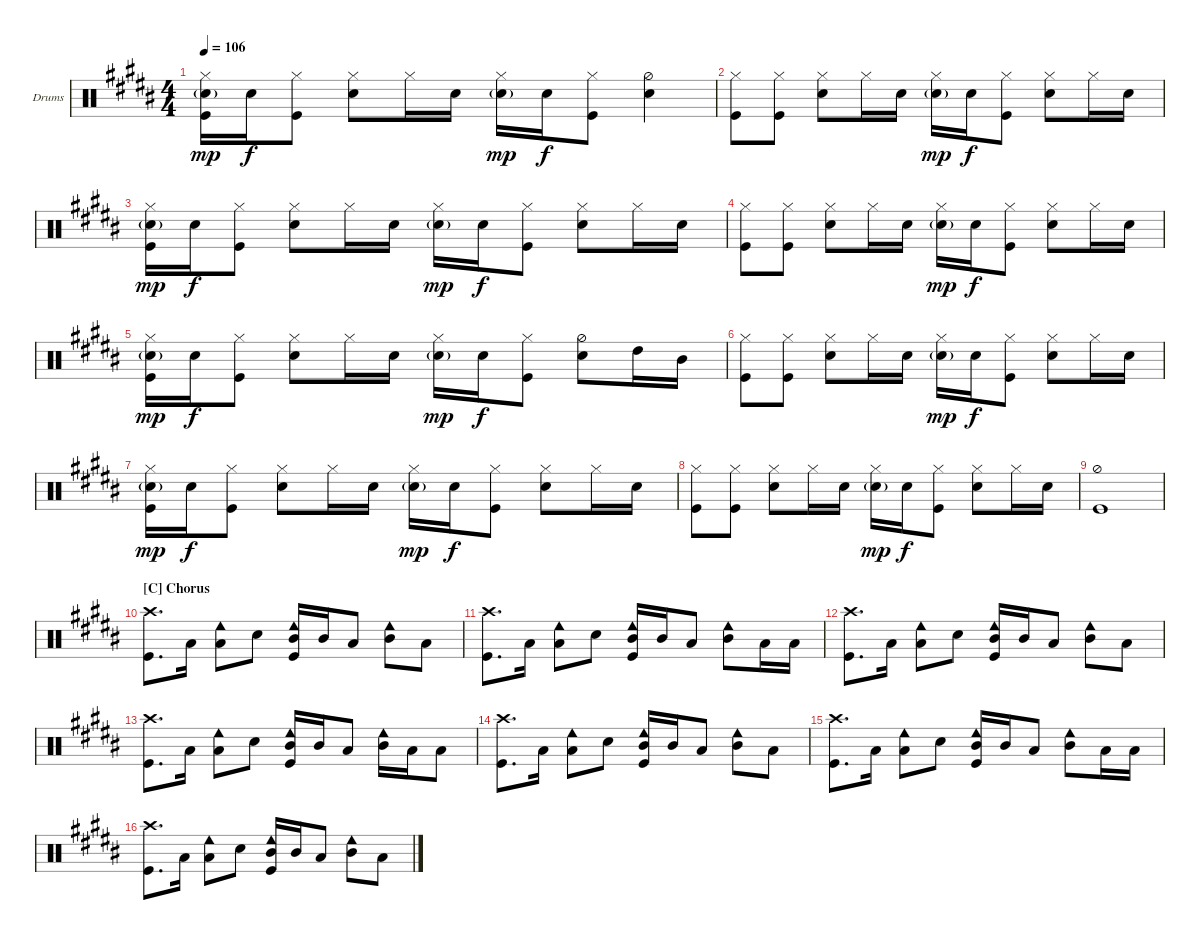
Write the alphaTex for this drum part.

\defaultSystemsLayout 4
\bracketExtendMode groupsimilarinstruments
\firstSystemTrackNameOrientation horizontal
\otherSystemsTrackNameOrientation horizontal
\track ("Dominic Boyce (Drums)" "Drums") {multiBarRest instrument percussion}
\staff {score}
\articulation defaults
\ts (4 4)
\tempo 106
\clef neutral
\ks b
("Snare (hit) 2"{g} "Hi-Hat (closed)" "Kick (hit)").16{dy mp} "Snare (hit) 2".16{dy f} ("Kick (hit)" "Hi-Hat (closed)").8 ("Snare (hit) 2" "Hi-Hat (closed)").8 "Hi-Hat (closed)".16 "Snare (hit) 2".16 ("Snare (hit) 2"{g} "Hi-Hat (closed)").16{dy mp} "Snare (hit) 2".16{dy f} ("Kick (hit)" "Hi-Hat (closed)").8 ("Snare (hit) 2" "Hi-Hat (half)").4 |
("Kick (hit)" "Hi-Hat (closed)").8 ("Kick (hit)" "Hi-Hat (closed)").8 ("Snare (hit) 2" "Hi-Hat (closed)").8 "Hi-Hat (closed)".16 "Snare (hit) 2".16 ("Snare (hit) 2"{g} "Hi-Hat (closed)").16{dy mp} "Snare (hit) 2".16{dy f} ("Kick (hit)" "Hi-Hat (closed)").8 ("Snare (hit) 2" "Hi-Hat (closed)").8 "Hi-Hat (closed)".16 "Snare (hit) 2".16 |
("Snare (hit) 2"{g} "Hi-Hat (closed)" "Kick (hit)").16{dy mp} "Snare (hit) 2".16{dy f} ("Kick (hit)" "Hi-Hat (closed)").8 ("Snare (hit) 2" "Hi-Hat (closed)").8 "Hi-Hat (closed)".16 "Snare (hit) 2".16 ("Snare (hit) 2"{g} "Hi-Hat (closed)").16{dy mp} "Snare (hit) 2".16{dy f} ("Kick (hit)" "Hi-Hat (closed)").8 ("Snare (hit) 2" "Hi-Hat (closed)").8 "Hi-Hat (closed)".16 "Snare (hit) 2".16 |
("Kick (hit)" "Hi-Hat (closed)").8 ("Kick (hit)" "Hi-Hat (closed)").8 ("Snare (hit) 2" "Hi-Hat (closed)").8 "Hi-Hat (closed)".16 "Snare (hit) 2".16 ("Snare (hit) 2"{g} "Hi-Hat (closed)").16{dy mp} "Snare (hit) 2".16{dy f} ("Kick (hit)" "Hi-Hat (closed)").8 ("Snare (hit) 2" "Hi-Hat (closed)").8 "Hi-Hat (closed)".16 "Snare (hit) 2".16 |
("Snare (hit) 2"{g} "Hi-Hat (closed)" "Kick (hit)").16{dy mp} "Snare (hit) 2".16{dy f} ("Kick (hit)" "Hi-Hat (closed)").8 ("Snare (hit) 2" "Hi-Hat (closed)").8 "Hi-Hat (closed)".16 "Snare (hit) 2".16 ("Snare (hit) 2"{g} "Hi-Hat (closed)").16{dy mp} "Snare (hit) 2".16{dy f} ("Kick (hit)" "Hi-Hat (closed)").8 ("Snare (hit) 2" "Hi-Hat (half)").8 "High Tom (hit)".16 "Mid Tom (hit)".16 |
("Kick (hit)" "Hi-Hat (closed)").8 ("Kick (hit)" "Hi-Hat (closed)").8 ("Snare (hit) 2" "Hi-Hat (closed)").8 "Hi-Hat (closed)".16 "Snare (hit) 2".16 ("Snare (hit) 2"{g} "Hi-Hat (closed)").16{dy mp} "Snare (hit) 2".16{dy f} ("Kick (hit)" "Hi-Hat (closed)").8 ("Snare (hit) 2" "Hi-Hat (closed)").8 "Hi-Hat (closed)".16 "Snare (hit) 2".16 |
("Snare (hit) 2"{g} "Hi-Hat (closed)" "Kick (hit)").16{dy mp} "Snare (hit) 2".16{dy f} ("Kick (hit)" "Hi-Hat (closed)").8 ("Snare (hit) 2" "Hi-Hat (closed)").8 "Hi-Hat (closed)".16 "Snare (hit) 2".16 ("Snare (hit) 2"{g} "Hi-Hat (closed)").16{dy mp} "Snare (hit) 2".16{dy f} ("Kick (hit)" "Hi-Hat (closed)").8 ("Snare (hit) 2" "Hi-Hat (closed)").8 "Hi-Hat (closed)".16 "Snare (hit) 2".16 |
("Kick (hit)" "Hi-Hat (closed)").8 ("Kick (hit)" "Hi-Hat (closed)").8 ("Snare (hit) 2" "Hi-Hat (closed)").8 "Hi-Hat (closed)".16 "Snare (hit) 2".16 ("Snare (hit) 2"{g} "Hi-Hat (closed)").16{dy mp} "Snare (hit) 2".16{dy f} ("Kick (hit)" "Hi-Hat (closed)").8 ("Snare (hit) 2" "Hi-Hat (closed)").8 "Hi-Hat (closed)".16 "Snare (hit) 2".16 |
("Hi-Hat (half)" "Kick (hit)").1 |
\section ("C" "Chorus")
("Crash high (hit)" "Kick (hit)").8{d} "Low Tom (hit)".16 ("Low Tom (hit)" "Cowbell low (hit)").8 "Snare (hit) 2".8 ("Mid Tom (hit)" "Kick (hit)" "Cowbell low (hit)").16 "Mid Tom (hit)".16 "Low Tom (hit)".8 ("Mid Tom (hit)" "Cowbell low (hit)").8 "Low Tom (hit)".8 |
("Crash high (hit)" "Kick (hit)").8{d} "Low Tom (hit)".16 ("Low Tom (hit)" "Cowbell low (hit)").8 "Snare (hit) 2".8 ("Mid Tom (hit)" "Kick (hit)" "Cowbell low (hit)").16 "Mid Tom (hit)".16 "Low Tom (hit)".8 ("Mid Tom (hit)" "Cowbell low (hit)").8 "Low Tom (hit)".16 "Low Tom (hit)".16 |
("Crash high (hit)" "Kick (hit)").8{d} "Low Tom (hit)".16 ("Low Tom (hit)" "Cowbell low (hit)").8 "Snare (hit) 2".8 ("Mid Tom (hit)" "Kick (hit)" "Cowbell low (hit)").16 "Mid Tom (hit)".16 "Low Tom (hit)".8 ("Mid Tom (hit)" "Cowbell low (hit)").8 "Low Tom (hit)".8 |
("Crash high (hit)" "Kick (hit)").8{d} "Low Tom (hit)".16 ("Low Tom (hit)" "Cowbell low (hit)").8 "Snare (hit) 2".8 ("Mid Tom (hit)" "Kick (hit)" "Cowbell low (hit)").16 "Mid Tom (hit)".16 "Low Tom (hit)".8 ("Mid Tom (hit)" "Cowbell low (hit)").16 "Low Tom (hit)".16 "Low Tom (hit)".8 |
("Crash high (hit)" "Kick (hit)").8{d} "Low Tom (hit)".16 ("Low Tom (hit)" "Cowbell low (hit)").8 "Snare (hit) 2".8 ("Mid Tom (hit)" "Kick (hit)" "Cowbell low (hit)").16 "Mid Tom (hit)".16 "Low Tom (hit)".8 ("Mid Tom (hit)" "Cowbell low (hit)").8 "Low Tom (hit)".8 |
("Crash high (hit)" "Kick (hit)").8{d} "Low Tom (hit)".16 ("Low Tom (hit)" "Cowbell low (hit)").8 "Snare (hit) 2".8 ("Mid Tom (hit)" "Kick (hit)" "Cowbell low (hit)").16 "Mid Tom (hit)".16 "Low Tom (hit)".8 ("Mid Tom (hit)" "Cowbell low (hit)").8 "Low Tom (hit)".16 "Low Tom (hit)".16 |
("Crash high (hit)" "Kick (hit)").8{d} "Low Tom (hit)".16 ("Low Tom (hit)" "Cowbell low (hit)").8 "Snare (hit) 2".8 ("Mid Tom (hit)" "Kick (hit)" "Cowbell low (hit)").16 "Mid Tom (hit)".16 "Low Tom (hit)".8 ("Mid Tom (hit)" "Cowbell low (hit)").8 "Low Tom (hit)".8
